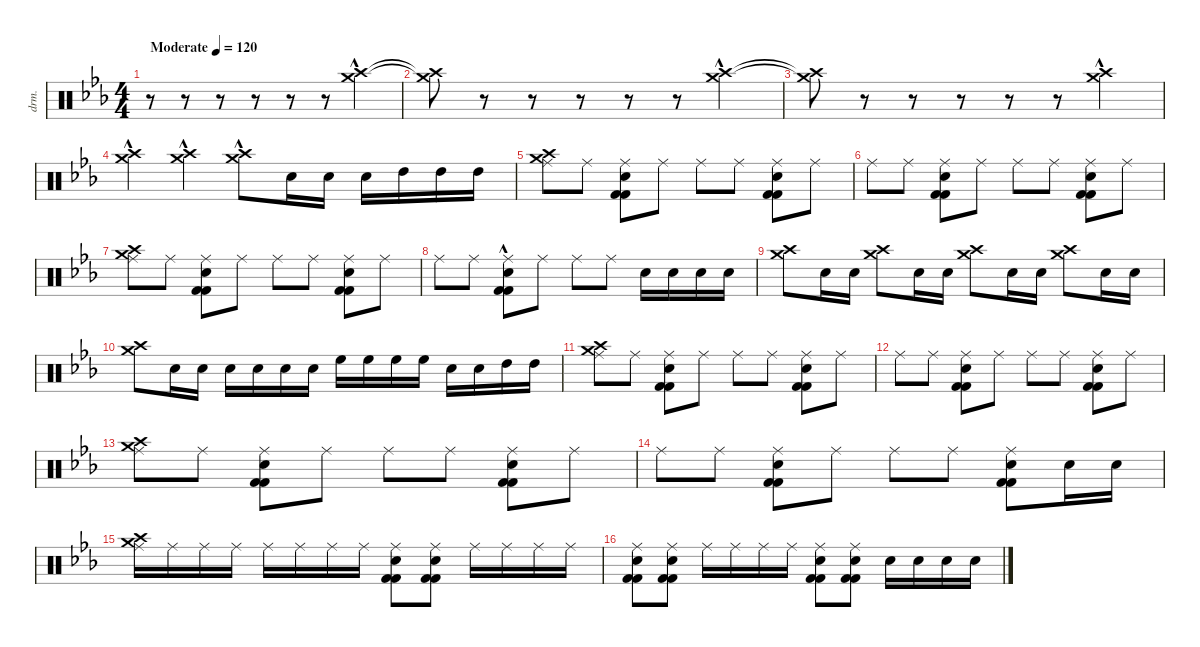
\defaultSystemsLayout 4
\hideDynamics
\bracketExtendMode nobrackets
\otherSystemsTrackNameOrientation horizontal
\track ("Percussion" "drm.") {instrument percussion}
\staff {score}
\articulation defaults
\ts (4 4)
\beaming (8 2 2 2 2)
\tempo (120 "Moderate")
\clef neutral
\ks eb
r.8{dy f beam Down} r.8{beam Down} r.8{beam Down} r.8{beam Down} r.8{beam Down} r.8{beam Down} ("Crash high (hit)"{hac acc forcenatural} "Crash medium (hit)"{acc forcenatural}).4{beam Down} |
("Crash high (hit)"{t acc forcenatural} "Crash medium (hit)"{t acc forcenatural}).8{beam Down} r.8{beam Down} r.8{beam Down} r.8{beam Down} r.8{beam Down} r.8{beam Down} ("Crash high (hit)"{hac acc forcenatural} "Crash medium (hit)"{hac acc forcenatural}).4{beam Down} |
("Crash high (hit)"{t acc forcenatural} "Crash medium (hit)"{t acc forcenatural}).8{beam Down} r.8{beam Down} r.8{beam Down} r.8{beam Down} r.8{beam Down} r.8{beam Down} ("Crash high (hit)"{hac acc forcenatural} "Crash medium (hit)"{hac acc forcenatural}).4{beam Down} |
("Crash high (hit)"{hac acc forcenatural} "Crash medium (hit)"{hac acc forcenatural}).4{beam Down} ("Crash high (hit)"{hac acc forcenatural} "Crash medium (hit)"{hac acc forcenatural}).4{beam Down} ("Crash high (hit)"{hac acc forcenatural} "Crash medium (hit)"{hac acc forcenatural}).8{beam Down} "Snare (hit) 2"{acc forcenatural}.16{beam Down} "Snare (hit) 2"{acc forcenatural}.16{beam Down} "Snare (hit) 2"{acc forcenatural}.16{beam Down} "High Tom (hit)"{acc forcenatural}.16{beam Down} "High Tom (hit)"{acc forcenatural}.16{beam Down} "High Tom (hit)"{acc forcenatural}.16{beam Down} |
("Crash high (hit)"{acc forcenatural} "Crash medium (hit)"{acc forcenatural} "Ride (middle)"{acc forcenatural}).8{beam Down} "Ride (middle)"{acc forcenatural}.8{beam Down} ("Ride (middle)"{acc forcenatural} "Snare (hit) 2"{acc forcenatural} "Kick (hit) 2"{acc forcenatural} "Kick (hit) 2"{acc forcenatural}).8{beam Down} "Ride (middle)"{acc forcenatural}.8{beam Down} "Ride (middle)"{acc forcenatural}.8{beam Down} "Ride (middle)"{acc forcenatural}.8{beam Down} ("Ride (middle)"{acc forcenatural} "Snare (hit) 2"{acc forcenatural} "Kick (hit) 2"{acc forcenatural} "Kick (hit) 2"{acc forcenatural}).8{beam Down} "Ride (middle)"{acc forcenatural}.8{beam Down} |
"Ride (middle)"{acc forcenatural}.8{beam Down} "Ride (middle)"{acc forcenatural}.8{beam Down} ("Ride (middle)"{acc forcenatural} "Snare (hit) 2"{acc forcenatural} "Kick (hit) 2"{acc forcenatural} "Kick (hit) 2"{acc forcenatural}).8{beam Down} "Ride (middle)"{acc forcenatural}.8{beam Down} "Ride (middle)"{acc forcenatural}.8{beam Down} "Ride (middle)"{acc forcenatural}.8{beam Down} ("Ride (middle)"{acc forcenatural} "Snare (hit) 2"{acc forcenatural} "Kick (hit) 2"{acc forcenatural} "Kick (hit) 2"{acc forcenatural}).8{beam Down} "Ride (middle)"{acc forcenatural}.8{beam Down} |
("Crash high (hit)"{acc forcenatural} "Crash medium (hit)"{acc forcenatural} "Ride (middle)"{acc forcenatural}).8{beam Down} "Ride (middle)"{acc forcenatural}.8{beam Down} ("Ride (middle)"{acc forcenatural} "Snare (hit) 2"{acc forcenatural} "Kick (hit) 2"{acc forcenatural} "Kick (hit) 2"{acc forcenatural}).8{beam Down} "Ride (middle)"{acc forcenatural}.8{beam Down} "Ride (middle)"{acc forcenatural}.8{beam Down} "Ride (middle)"{acc forcenatural}.8{beam Down} ("Ride (middle)"{acc forcenatural} "Snare (hit) 2"{acc forcenatural} "Kick (hit) 2"{acc forcenatural} "Kick (hit) 2"{acc forcenatural}).8{beam Down} "Ride (middle)"{acc forcenatural}.8{beam Down} |
"Ride (middle)"{acc forcenatural}.8{beam Down} "Ride (middle)"{acc forcenatural}.8{beam Down} ("Ride (middle)"{acc forcenatural} "Snare (hit) 2"{acc forcenatural} "Kick (hit) 2"{hac acc forcenatural} "Kick (hit) 2"{acc forcenatural}).8{beam Down} "Ride (middle)"{acc forcenatural}.8{beam Down} "Ride (middle)"{acc forcenatural}.8{beam Down} "Ride (middle)"{acc forcenatural}.8{beam Down} "Snare (hit) 2"{acc forcenatural}.16{beam Down} "Snare (hit) 2"{acc forcenatural}.16{beam Down} "Snare (hit) 2"{acc forcenatural}.16{beam Down} "Snare (hit) 2"{acc forcenatural}.16{beam Down} |
("Crash high (hit)"{acc forcenatural} "Crash medium (hit)"{acc forcenatural}).8{beam Down} "Snare (hit) 2"{acc forcenatural}.16{beam Down} "Snare (hit) 2"{acc forcenatural}.16{beam Down} ("Crash high (hit)"{acc forcenatural} "Crash medium (hit)"{acc forcenatural}).8{beam Down} "Snare (hit) 2"{acc forcenatural}.16{beam Down} "Snare (hit) 2"{acc forcenatural}.16{beam Down} ("Crash high (hit)"{acc forcenatural} "Crash medium (hit)"{acc forcenatural}).8{beam Down} "Snare (hit) 2"{acc forcenatural}.16{beam Down} "Snare (hit) 2"{acc forcenatural}.16{beam Down} ("Crash high (hit)"{acc forcenatural} "Crash medium (hit)"{acc forcenatural}).8{beam Down} "Snare (hit) 2"{acc forcenatural}.16{beam Down} "Snare (hit) 2"{acc forcenatural}.16{beam Down} |
("Crash high (hit)"{acc forcenatural} "Crash medium (hit)"{acc forcenatural}).8{beam Down} "Snare (hit) 2"{acc forcenatural}.16{beam Down} "Snare (hit) 2"{acc forcenatural}.16{beam Down} "Snare (hit) 2"{acc forcenatural}.16{beam Down} "Snare (hit) 2"{acc forcenatural}.16{beam Down} "Snare (hit) 2"{acc forcenatural}.16{beam Down} "Snare (hit) 2"{acc forcenatural}.16{beam Down} "High Floor Tom (hit)"{acc forcenatural}.16{beam Down} "High Floor Tom (hit)"{acc forcenatural}.16{beam Down} "High Floor Tom (hit)"{acc forcenatural}.16{beam Down} "High Floor Tom (hit)"{acc forcenatural}.16{beam Down} "Snare (hit) 2"{acc forcenatural}.16{beam Down} "Snare (hit) 2"{acc forcenatural}.16{beam Down} "High Tom (hit)"{acc forcenatural}.16{beam Down} "High Tom (hit)"{acc forcenatural}.16{beam Down} |
("Crash high (hit)"{acc forcenatural} "Crash medium (hit)"{acc forcenatural} "Ride (middle)"{acc forcenatural}).8{beam Down} "Ride (middle)"{acc forcenatural}.8{beam Down} ("Ride (middle)"{acc forcenatural} "Snare (hit) 2"{acc forcenatural} "Kick (hit) 2"{acc forcenatural} "Kick (hit) 2"{acc forcenatural}).8{beam Down} "Ride (middle)"{acc forcenatural}.8{beam Down} "Ride (middle)"{acc forcenatural}.8{beam Down} "Ride (middle)"{acc forcenatural}.8{beam Down} ("Ride (middle)"{acc forcenatural} "Snare (hit) 2"{acc forcenatural} "Kick (hit) 2"{acc forcenatural} "Kick (hit) 2"{acc forcenatural}).8{beam Down} "Ride (middle)"{acc forcenatural}.8{beam Down} |
"Ride (middle)"{acc forcenatural}.8{beam Down} "Ride (middle)"{acc forcenatural}.8{beam Down} ("Ride (middle)"{acc forcenatural} "Snare (hit) 2"{acc forcenatural} "Kick (hit) 2"{acc forcenatural} "Kick (hit) 2"{acc forcenatural}).8{beam Down} "Ride (middle)"{acc forcenatural}.8{beam Down} "Ride (middle)"{acc forcenatural}.8{beam Down} "Ride (middle)"{acc forcenatural}.8{beam Down} ("Ride (middle)"{acc forcenatural} "Snare (hit) 2"{acc forcenatural} "Kick (hit) 2"{acc forcenatural} "Kick (hit) 2"{acc forcenatural}).8{beam Down} "Ride (middle)"{acc forcenatural}.8{beam Down} |
("Crash high (hit)"{acc forcenatural} "Crash medium (hit)"{acc forcenatural} "Ride (middle)"{acc forcenatural}).8{beam Down} "Ride (middle)"{acc forcenatural}.8{beam Down} ("Ride (middle)"{acc forcenatural} "Snare (hit) 2"{acc forcenatural} "Kick (hit) 2"{acc forcenatural} "Kick (hit) 2"{acc forcenatural}).8{beam Down} "Ride (middle)"{acc forcenatural}.8{beam Down} "Ride (middle)"{acc forcenatural}.8{beam Down} "Ride (middle)"{acc forcenatural}.8{beam Down} ("Ride (middle)"{acc forcenatural} "Snare (hit) 2"{acc forcenatural} "Kick (hit) 2"{acc forcenatural} "Kick (hit) 2"{acc forcenatural}).8{beam Down} "Ride (middle)"{acc forcenatural}.8{beam Down} |
"Ride (middle)"{acc forcenatural}.8{beam Down} "Ride (middle)"{acc forcenatural}.8{beam Down} ("Ride (middle)"{acc forcenatural} "Snare (hit) 2"{acc forcenatural} "Kick (hit) 2"{acc forcenatural} "Kick (hit) 2"{acc forcenatural}).8{beam Down} "Ride (middle)"{acc forcenatural}.8{beam Down} "Ride (middle)"{acc forcenatural}.8{beam Down} "Ride (middle)"{acc forcenatural}.8{beam Down} ("Ride (middle)"{acc forcenatural} "Snare (hit) 2"{acc forcenatural} "Kick (hit) 2"{acc forcenatural} "Kick (hit) 2"{acc forcenatural}).8{beam Down} "Snare (hit) 2"{acc forcenatural}.16{beam Down} "Snare (hit) 2"{acc forcenatural}.16{beam Down} |
("Crash high (hit)"{acc forcenatural} "Crash medium (hit)"{acc forcenatural} "Ride (middle)"{acc forcenatural}).16{beam Down} "Ride (middle)"{acc forcenatural}.16{beam Down} "Ride (middle)"{acc forcenatural}.16{beam Down} "Ride (middle)"{acc forcenatural}.16{beam Down} "Ride (middle)"{acc forcenatural}.16{beam Down} "Ride (middle)"{acc forcenatural}.16{beam Down} "Ride (middle)"{acc forcenatural}.16{beam Down} "Ride (middle)"{acc forcenatural}.16{beam Down} ("Ride (middle)"{acc forcenatural} "Snare (hit) 2"{acc forcenatural} "Kick (hit) 2"{acc forcenatural} "Kick (hit) 2"{acc forcenatural}).8{beam Down} ("Ride (middle)"{acc forcenatural} "Snare (hit) 2"{acc forcenatural} "Kick (hit) 2"{acc forcenatural} "Kick (hit) 2"{acc forcenatural}).8{beam Down} "Ride (middle)"{acc forcenatural}.16{beam Down} "Ride (middle)"{acc forcenatural}.16{beam Down} "Ride (middle)"{acc forcenatural}.16{beam Down} "Ride (middle)"{acc forcenatural}.16{beam Down} |
("Ride (middle)"{acc forcenatural} "Snare (hit) 2"{acc forcenatural} "Kick (hit) 2"{acc forcenatural} "Kick (hit) 2"{acc forcenatural}).8{beam Down} ("Ride (middle)"{acc forcenatural} "Snare (hit) 2"{acc forcenatural} "Kick (hit) 2"{acc forcenatural} "Kick (hit) 2"{acc forcenatural}).8{beam Down} "Ride (middle)"{acc forcenatural}.16{beam Down} "Ride (middle)"{acc forcenatural}.16{beam Down} "Ride (middle)"{acc forcenatural}.16{beam Down} "Ride (middle)"{acc forcenatural}.16{beam Down} ("Ride (middle)"{acc forcenatural} "Snare (hit) 2"{acc forcenatural} "Kick (hit) 2"{acc forcenatural} "Kick (hit) 2"{acc forcenatural}).8{beam Down} ("Ride (middle)"{acc forcenatural} "Snare (hit) 2"{acc forcenatural} "Kick (hit) 2"{acc forcenatural} "Kick (hit) 2"{acc forcenatural}).8{beam Down} "Snare (hit) 2"{acc forcenatural}.16{beam Down} "Snare (hit) 2"{acc forcenatural}.16{beam Down} "Snare (hit) 2"{acc forcenatural}.16{beam Down} "Snare (hit) 2"{acc forcenatural}.16{beam Down}
